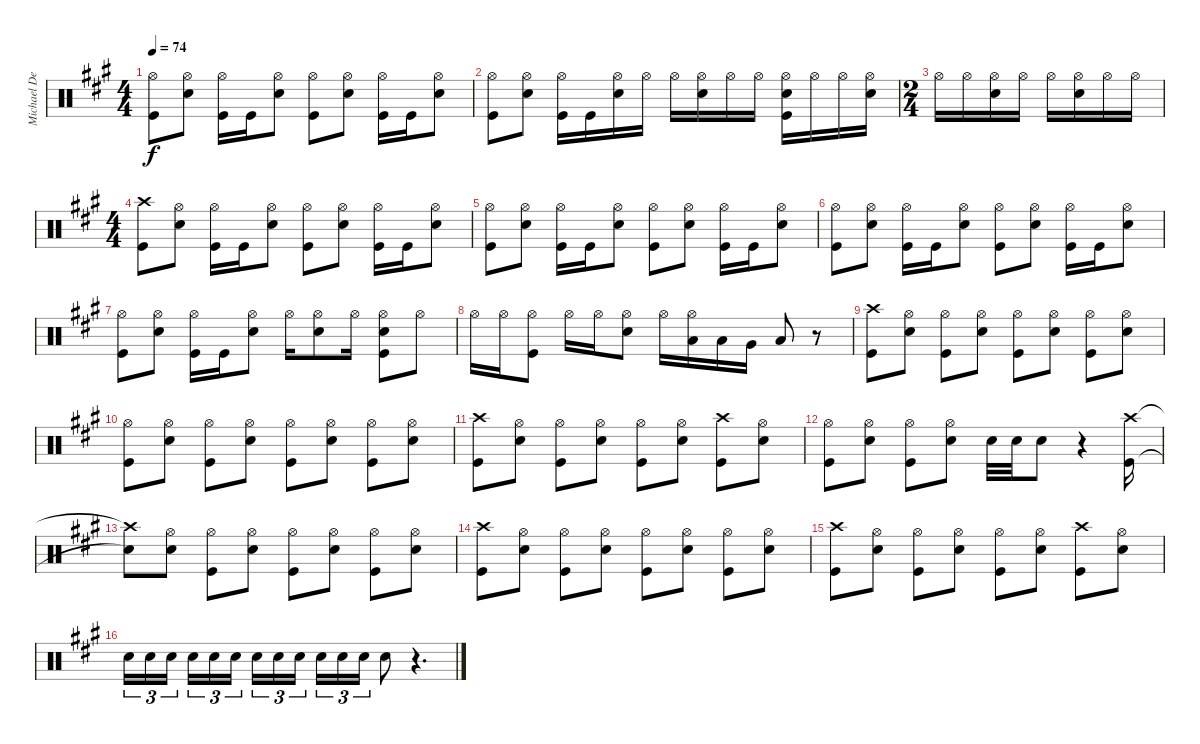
\track ("Michael Derosier Drums" "Michael De") {instrument percussion}
\staff {score}
\articulation defaults
\ts (4 4)
\tempo 74
\clef neutral
\ks a
("Hi-Hat (open)" "Kick (hit)").8{dy f} ("Hi-Hat (open)" "Snare (hit) 2").8 ("Hi-Hat (open)" "Kick (hit)").16 "Kick (hit)".16 ("Hi-Hat (open)" "Snare (hit) 2").8 ("Hi-Hat (open)" "Kick (hit)").8 ("Hi-Hat (open)" "Snare (hit) 2").8 ("Hi-Hat (open)" "Kick (hit)").16 "Kick (hit)".16 ("Hi-Hat (open)" "Snare (hit) 2").8 |
("Hi-Hat (open)" "Kick (hit)").8 ("Hi-Hat (open)" "Snare (hit) 2").8 ("Hi-Hat (open)" "Kick (hit)").16 "Kick (hit)".16 ("Hi-Hat (open)" "Snare (hit) 2").16 "Hi-Hat (open)".16 "Hi-Hat (open)".16 ("Hi-Hat (open)" "Snare (hit) 2").16 "Hi-Hat (open)".16 "Hi-Hat (open)".16 ("Hi-Hat (open)" "Snare (hit) 2" "Kick (hit)").16 "Hi-Hat (open)".16 "Hi-Hat (open)".16 ("Hi-Hat (open)" "Snare (hit) 2").16 |
\ts (2 4)
"Hi-Hat (open)".16 "Hi-Hat (open)".16 ("Hi-Hat (open)" "Snare (hit) 2").16 "Hi-Hat (open)".16 "Hi-Hat (open)".16 ("Hi-Hat (open)" "Snare (hit) 2").16 "Hi-Hat (open)".16 "Hi-Hat (open)".16 |
\ts (4 4)
("Crash high (hit)" "Kick (hit)").8 ("Hi-Hat (open)" "Snare (hit) 2").8 ("Hi-Hat (open)" "Kick (hit)").16 "Kick (hit)".16 ("Hi-Hat (open)" "Snare (hit) 2").8 ("Hi-Hat (open)" "Kick (hit)").8 ("Hi-Hat (open)" "Snare (hit) 2").8 ("Hi-Hat (open)" "Kick (hit)").16 "Kick (hit)".16 ("Hi-Hat (open)" "Snare (hit) 2").8 |
("Hi-Hat (open)" "Kick (hit)").8 ("Hi-Hat (open)" "Snare (hit) 2").8 ("Hi-Hat (open)" "Kick (hit)").16 "Kick (hit)".16 ("Hi-Hat (open)" "Snare (hit) 2").8 ("Hi-Hat (open)" "Kick (hit)").8 ("Hi-Hat (open)" "Snare (hit) 2").8 ("Hi-Hat (open)" "Kick (hit)").16 "Kick (hit)".16 ("Hi-Hat (open)" "Snare (hit) 2").8 |
("Hi-Hat (open)" "Kick (hit)").8 ("Hi-Hat (open)" "Snare (hit) 2").8 ("Hi-Hat (open)" "Kick (hit)").16 "Kick (hit)".16 ("Hi-Hat (open)" "Snare (hit) 2").8 ("Hi-Hat (open)" "Kick (hit)").8 ("Hi-Hat (open)" "Snare (hit) 2").8 ("Hi-Hat (open)" "Kick (hit)").16 "Kick (hit)".16 ("Hi-Hat (open)" "Snare (hit) 2").8 |
("Hi-Hat (open)" "Kick (hit)").8 ("Hi-Hat (open)" "Snare (hit) 2").8 ("Hi-Hat (open)" "Kick (hit)").16 "Kick (hit)".16 ("Hi-Hat (open)" "Snare (hit) 2").8 "Hi-Hat (open)".16 ("Hi-Hat (open)" "Snare (hit) 2").8 "Hi-Hat (open)".16 ("Hi-Hat (open)" "Snare (hit) 2" "Kick (hit)").8 "Hi-Hat (open)".8 |
"Hi-Hat (open)".16 "Hi-Hat (open)".16 ("Hi-Hat (open)" "Kick (hit)").8 "Hi-Hat (open)".16 "Hi-Hat (open)".16 ("Hi-Hat (open)" "Snare (hit) 2").8 "Hi-Hat (open)".16 ("Hi-Hat (open)" "Low Tom (hit)").16 "Low Tom (hit)".16 "Very Low Tom (hit)".16 "Low Floor Tom (hit)".8 r.8 |
("Crash high (hit)" "Kick (hit)").8 ("Hi-Hat (open)" "Snare (hit) 2").8 ("Hi-Hat (open)" "Kick (hit)").8 ("Hi-Hat (open)" "Snare (hit) 2").8 ("Hi-Hat (open)" "Kick (hit)").8 ("Hi-Hat (open)" "Snare (hit) 2").8 ("Hi-Hat (open)" "Kick (hit)").8 ("Hi-Hat (open)" "Snare (hit) 2").8 |
("Hi-Hat (open)" "Kick (hit)").8 ("Hi-Hat (open)" "Snare (hit) 2").8 ("Hi-Hat (open)" "Kick (hit)").8 ("Hi-Hat (open)" "Snare (hit) 2").8 ("Hi-Hat (open)" "Kick (hit)").8 ("Hi-Hat (open)" "Snare (hit) 2").8 ("Hi-Hat (open)" "Kick (hit)").8 ("Hi-Hat (open)" "Snare (hit) 2").8 |
("Crash high (hit)" "Kick (hit)").8 ("Hi-Hat (open)" "Snare (hit) 2").8 ("Hi-Hat (open)" "Kick (hit)").8 ("Hi-Hat (open)" "Snare (hit) 2").8 ("Hi-Hat (open)" "Kick (hit)").8 ("Hi-Hat (open)" "Snare (hit) 2").8 ("Crash high (hit)" "Kick (hit)").8 ("Hi-Hat (open)" "Snare (hit) 2").8 |
("Hi-Hat (open)" "Kick (hit)").8 ("Hi-Hat (open)" "Snare (hit) 2").8 ("Hi-Hat (open)" "Kick (hit)").8 ("Hi-Hat (open)" "Snare (hit) 2").8 "Snare (hit) 2".32 "Snare (hit) 2".32 "Snare (hit) 2".8 r.4 ("Crash high (hit)" "Kick (hit)").16 |
("Crash high (hit)"{t} "Snare (hit)"{t}).8 ("Hi-Hat (open)" "Snare (hit) 2").8 ("Hi-Hat (open)" "Kick (hit)").8 ("Hi-Hat (open)" "Snare (hit) 2").8 ("Hi-Hat (open)" "Kick (hit)").8 ("Hi-Hat (open)" "Snare (hit) 2").8 ("Hi-Hat (open)" "Kick (hit)").8 ("Hi-Hat (open)" "Snare (hit) 2").8 |
("Crash high (hit)" "Kick (hit)").8 ("Hi-Hat (open)" "Snare (hit) 2").8 ("Hi-Hat (open)" "Kick (hit)").8 ("Hi-Hat (open)" "Snare (hit) 2").8 ("Hi-Hat (open)" "Kick (hit)").8 ("Hi-Hat (open)" "Snare (hit) 2").8 ("Hi-Hat (open)" "Kick (hit)").8 ("Hi-Hat (open)" "Snare (hit) 2").8 |
("Crash high (hit)" "Kick (hit)").8 ("Hi-Hat (open)" "Snare (hit) 2").8 ("Hi-Hat (open)" "Kick (hit)").8 ("Hi-Hat (open)" "Snare (hit) 2").8 ("Hi-Hat (open)" "Kick (hit)").8 ("Hi-Hat (open)" "Snare (hit) 2").8 ("Crash high (hit)" "Kick (hit)").8 ("Hi-Hat (open)" "Snare (hit) 2").8 |
"Snare (hit) 2".16{tu (3 2)} "Snare (hit) 2".16{tu (3 2)} "Snare (hit) 2".16{tu (3 2) beam splitsecondary} "Snare (hit) 2".16{tu (3 2)} "Snare (hit) 2".16{tu (3 2)} "Snare (hit) 2".16{tu (3 2)} "Snare (hit) 2".16{tu (3 2)} "Snare (hit) 2".16{tu (3 2)} "Snare (hit) 2".16{tu (3 2) beam splitsecondary} "Snare (hit) 2".16{tu (3 2)} "Snare (hit) 2".16{tu (3 2)} "Snare (hit) 2".16{tu (3 2)} "Snare (hit) 2".8 r.4{d}
